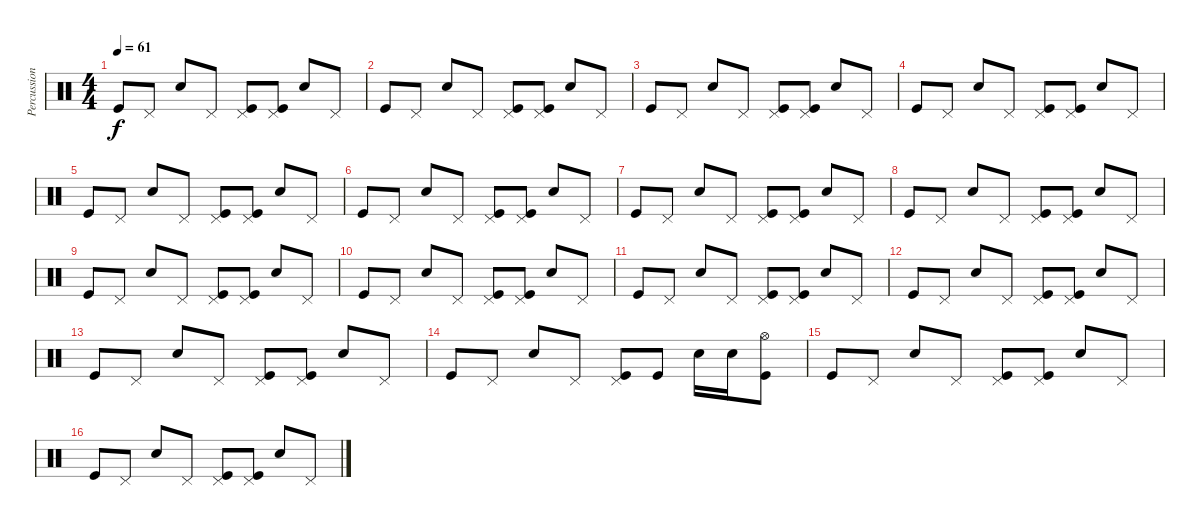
\track ("Percussion" "Percussion") {instrument percussion}
\staff {score}
\articulation defaults
\ts (4 4)
\tempo 61
\clef neutral
\ks c "Kick (hit)".8{dy f} "Pedal Hi-Hat (hit)".8 "Snare (hit) 2".8 "Pedal Hi-Hat (hit)".8
("Pedal Hi-Hat (hit)" "Kick (hit)").8 ("Pedal Hi-Hat (hit)" "Kick (hit)").8 "Snare (hit) 2".8 "Pedal Hi-Hat (hit)".8 |
"Kick (hit)".8 "Pedal Hi-Hat (hit)".8 "Snare (hit) 2".8 "Pedal Hi-Hat (hit)".8 ("Pedal Hi-Hat (hit)" "Kick (hit)").8 ("Pedal Hi-Hat (hit)" "Kick (hit)").8 "Snare (hit) 2".8 "Pedal Hi-Hat (hit)".8 |
"Kick (hit)".8 "Pedal Hi-Hat (hit)".8 "Snare (hit) 2".8 "Pedal Hi-Hat (hit)".8 ("Pedal Hi-Hat (hit)" "Kick (hit)").8 ("Pedal Hi-Hat (hit)" "Kick (hit)").8 "Snare (hit) 2".8 "Pedal Hi-Hat (hit)".8 |
"Kick (hit)".8 "Pedal Hi-Hat (hit)".8 "Snare (hit) 2".8 "Pedal Hi-Hat (hit)".8 ("Pedal Hi-Hat (hit)" "Kick (hit)").8 ("Pedal Hi-Hat (hit)" "Kick (hit)").8 "Snare (hit) 2".8 "Pedal Hi-Hat (hit)".8 |
"Kick (hit)".8 "Pedal Hi-Hat (hit)".8 "Snare (hit) 2".8 "Pedal Hi-Hat (hit)".8 ("Pedal Hi-Hat (hit)" "Kick (hit)").8 ("Pedal Hi-Hat (hit)" "Kick (hit)").8 "Snare (hit) 2".8 "Pedal Hi-Hat (hit)".8 |
"Kick (hit)".8 "Pedal Hi-Hat (hit)".8 "Snare (hit) 2".8 "Pedal Hi-Hat (hit)".8 ("Pedal Hi-Hat (hit)" "Kick (hit)").8 ("Pedal Hi-Hat (hit)" "Kick (hit)").8 "Snare (hit) 2".8 "Pedal Hi-Hat (hit)".8 |
"Kick (hit)".8 "Pedal Hi-Hat (hit)".8 "Snare (hit) 2".8 "Pedal Hi-Hat (hit)".8 ("Pedal Hi-Hat (hit)" "Kick (hit)").8 ("Pedal Hi-Hat (hit)" "Kick (hit)").8 "Snare (hit) 2".8 "Pedal Hi-Hat (hit)".8 |
"Kick (hit)".8 "Pedal Hi-Hat (hit)".8 "Snare (hit) 2".8 "Pedal Hi-Hat (hit)".8 ("Pedal Hi-Hat (hit)" "Kick (hit)").8 ("Pedal Hi-Hat (hit)" "Kick (hit)").8 "Snare (hit) 2".8 "Pedal Hi-Hat (hit)".8 |
"Kick (hit)".8 "Pedal Hi-Hat (hit)".8 "Snare (hit) 2".8 "Pedal Hi-Hat (hit)".8 ("Pedal Hi-Hat (hit)" "Kick (hit)").8 ("Pedal Hi-Hat (hit)" "Kick (hit)").8 "Snare (hit) 2".8 "Pedal Hi-Hat (hit)".8 |
"Kick (hit)".8 "Pedal Hi-Hat (hit)".8 "Snare (hit) 2".8 "Pedal Hi-Hat (hit)".8 ("Pedal Hi-Hat (hit)" "Kick (hit)").8 ("Pedal Hi-Hat (hit)" "Kick (hit)").8 "Snare (hit) 2".8 "Pedal Hi-Hat (hit)".8 |
"Kick (hit)".8 "Pedal Hi-Hat (hit)".8 "Snare (hit) 2".8 "Pedal Hi-Hat (hit)".8 ("Pedal Hi-Hat (hit)" "Kick (hit)").8 ("Pedal Hi-Hat (hit)" "Kick (hit)").8 "Snare (hit) 2".8 "Pedal Hi-Hat (hit)".8 |
"Kick (hit)".8 "Pedal Hi-Hat (hit)".8 "Snare (hit) 2".8 "Pedal Hi-Hat (hit)".8 ("Pedal Hi-Hat (hit)" "Kick (hit)").8 ("Pedal Hi-Hat (hit)" "Kick (hit)").8 "Snare (hit) 2".8 "Pedal Hi-Hat (hit)".8 |
"Kick (hit)".8 "Pedal Hi-Hat (hit)".8 "Snare (hit) 2".8 "Pedal Hi-Hat (hit)".8 ("Pedal Hi-Hat (hit)" "Kick (hit)").8 ("Pedal Hi-Hat (hit)" "Kick (hit)").8 "Snare (hit) 2".8 "Pedal Hi-Hat (hit)".8 |
"Kick (hit)".8 "Pedal Hi-Hat (hit)".8 "Snare (hit) 2".8 "Pedal Hi-Hat (hit)".8 ("Pedal Hi-Hat (hit)" "Kick (hit)").8 "Kick (hit)".8 "Snare (hit) 2".16 "Snare (hit) 2".16 ("Kick (hit)" "Hi-Hat (open)").8 |
"Kick (hit)".8 "Pedal Hi-Hat (hit)".8 "Snare (hit) 2".8 "Pedal Hi-Hat (hit)".8 ("Pedal Hi-Hat (hit)" "Kick (hit)").8 ("Pedal Hi-Hat (hit)" "Kick (hit)").8 "Snare (hit) 2".8 "Pedal Hi-Hat (hit)".8 |
"Kick (hit)".8 "Pedal Hi-Hat (hit)".8 "Snare (hit) 2".8 "Pedal Hi-Hat (hit)".8 ("Pedal Hi-Hat (hit)" "Kick (hit)").8 ("Pedal Hi-Hat (hit)" "Kick (hit)").8 "Snare (hit) 2".8 "Pedal Hi-Hat (hit)".8
